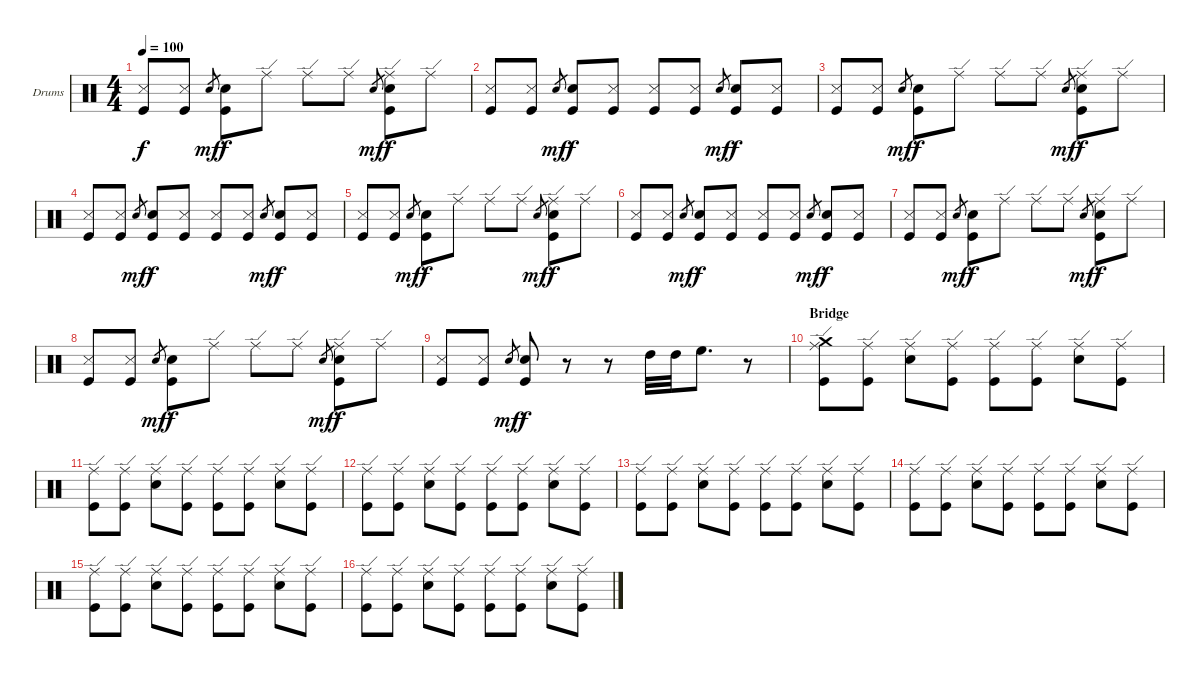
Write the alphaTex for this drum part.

\defaultSystemsLayout 4
\bracketExtendMode groupsimilarinstruments
\firstSystemTrackNameOrientation horizontal
\otherSystemsTrackNameOrientation horizontal
\track ("Drumkit" "Drums") {instrument percussion}
\staff {score}
\articulation defaults
\ts (4 4)
\tempo 100
\clef neutral
\scale
1.02648
\ks c
("Snare (side stick) 3" "Kick (hit)").8{dy f} ("Snare (side stick) 3" "Kick (hit)").8 "Snare (hit) 2".8{gr dy mf} ("Snare (hit) 2" "Kick (hit)").8{dy f} "Ride (edge)".8 "Ride (edge)".8 "Ride (edge)".8 "Snare (hit) 2".8{gr dy mf} ("Ride (edge)" "Snare (hit) 2" "Kick (hit)").8{dy f} "Ride (edge)".8 |
\scale
0.973518 ("Snare (side stick) 3" "Kick (hit)").8 ("Snare (side stick) 3" "Kick (hit)").8 "Snare (hit) 2".8{gr dy mf} ("Snare (hit) 2" "Kick (hit)").8{dy f} ("Snare (side stick) 3" "Kick (hit)").8 ("Snare (side stick) 3" "Kick (hit)").8 ("Snare (side stick) 3" "Kick (hit)").8 "Snare (hit) 2".8{gr dy mf} ("Snare (hit) 2" "Kick (hit)").8{dy f} ("Snare (side stick) 3" "Kick (hit)").8 |
\scale
1.02648 ("Snare (side stick) 3" "Kick (hit)").8 ("Snare (side stick) 3" "Kick (hit)").8 "Snare (hit) 2".8{gr dy mf} ("Snare (hit) 2" "Kick (hit)").8{dy f} "Ride (edge)".8 "Ride (edge)".8 "Ride (edge)".8 "Snare (hit) 2".8{gr dy mf} ("Ride (edge)" "Snare (hit) 2" "Kick (hit)").8{dy f} "Ride (edge)".8 |
\scale
0.973518 ("Snare (side stick) 3" "Kick (hit)").8 ("Snare (side stick) 3" "Kick (hit)").8 "Snare (hit) 2".8{gr dy mf} ("Snare (hit) 2" "Kick (hit)").8{dy f} ("Snare (side stick) 3" "Kick (hit)").8 ("Snare (side stick) 3" "Kick (hit)").8 ("Snare (side stick) 3" "Kick (hit)").8 "Snare (hit) 2".8{gr dy mf} ("Snare (hit) 2" "Kick (hit)").8{dy f} ("Snare (side stick) 3" "Kick (hit)").8 |
\scale
1.02648 ("Snare (side stick) 3" "Kick (hit)").8 ("Snare (side stick) 3" "Kick (hit)").8 "Snare (hit) 2".8{gr dy mf} ("Snare (hit) 2" "Kick (hit)").8{dy f} "Ride (edge)".8 "Ride (edge)".8 "Ride (edge)".8 "Snare (hit) 2".8{gr dy mf} ("Ride (edge)" "Snare (hit) 2" "Kick (hit)").8{dy f} "Ride (edge)".8 |
\scale
0.973518 ("Snare (side stick) 3" "Kick (hit)").8 ("Snare (side stick) 3" "Kick (hit)").8 "Snare (hit) 2".8{gr dy mf} ("Snare (hit) 2" "Kick (hit)").8{dy f} ("Snare (side stick) 3" "Kick (hit)").8 ("Snare (side stick) 3" "Kick (hit)").8 ("Snare (side stick) 3" "Kick (hit)").8 "Snare (hit) 2".8{gr dy mf} ("Snare (hit) 2" "Kick (hit)").8{dy f} ("Snare (side stick) 3" "Kick (hit)").8 |
\scale
1.02648 ("Snare (side stick) 3" "Kick (hit)").8 ("Snare (side stick) 3" "Kick (hit)").8 "Snare (hit) 2".8{gr dy mf} ("Snare (hit) 2" "Kick (hit)").8{dy f} "Ride (edge)".8 "Ride (edge)".8 "Ride (edge)".8 "Snare (hit) 2".8{gr dy mf} ("Ride (edge)" "Snare (hit) 2" "Kick (hit)").8{dy f} "Ride (edge)".8 |
\scale
0.973518 ("Snare (side stick) 3" "Kick (hit)").8 ("Snare (side stick) 3" "Kick (hit)").8 "Snare (hit) 2".8{gr dy mf} ("Snare (hit) 2" "Kick (hit)").8{dy f} "Ride (edge)".8 "Ride (edge)".8 "Ride (edge)".8 "Snare (hit) 2".8{gr dy mf} ("Ride (edge)" "Snare (hit) 2" "Kick (hit)").8{dy f} "Ride (edge)".8 |
\scale
1.02648 ("Snare (side stick) 3" "Kick (hit)").8 ("Snare (side stick) 3" "Kick (hit)").8 "Snare (hit) 2".8{gr dy mf} ("Snare (hit) 2" "Kick (hit)").8{dy f} r.8 r.8 "High Tom (hit)".32 "High Tom (hit)".32 "High Floor Tom (hit)".8{d} r.8 |
\section ("" "Bridge")
\scale
0.973518 ("Ride (edge)" "Crash medium (hit)" "Kick (hit)").8 ("Ride (edge)" "Kick (hit)").8 ("Ride (edge)" "Snare (hit) 2").8 ("Ride (edge)" "Kick (hit)").8 ("Ride (edge)" "Kick (hit)").8 ("Ride (edge)" "Kick (hit)").8 ("Ride (edge)" "Snare (hit) 2").8 ("Ride (edge)" "Kick (hit)").8 |
\scale
1.02648 ("Ride (edge)" "Kick (hit)").8 ("Ride (edge)" "Kick (hit)").8 ("Ride (edge)" "Snare (hit) 2").8 ("Ride (edge)" "Kick (hit)").8 ("Ride (edge)" "Kick (hit)").8 ("Ride (edge)" "Kick (hit)").8 ("Ride (edge)" "Snare (hit) 2").8 ("Ride (edge)" "Kick (hit)").8 |
\scale
0.973518 ("Ride (edge)" "Kick (hit)").8 ("Ride (edge)" "Kick (hit)").8 ("Ride (edge)" "Snare (hit) 2").8 ("Ride (edge)" "Kick (hit)").8 ("Ride (edge)" "Kick (hit)").8 ("Ride (edge)" "Kick (hit)").8 ("Ride (edge)" "Snare (hit) 2").8 ("Ride (edge)" "Kick (hit)").8 |
\scale
1.02648 ("Ride (edge)" "Kick (hit)").8 ("Ride (edge)" "Kick (hit)").8 ("Ride (edge)" "Snare (hit) 2").8 ("Ride (edge)" "Kick (hit)").8 ("Ride (edge)" "Kick (hit)").8 ("Ride (edge)" "Kick (hit)").8 ("Ride (edge)" "Snare (hit) 2").8 ("Ride (edge)" "Kick (hit)").8 |
\scale
0.973518 ("Ride (edge)" "Kick (hit)").8 ("Ride (edge)" "Kick (hit)").8 ("Ride (edge)" "Snare (hit) 2").8 ("Ride (edge)" "Kick (hit)").8 ("Ride (edge)" "Kick (hit)").8 ("Ride (edge)" "Kick (hit)").8 ("Ride (edge)" "Snare (hit) 2").8 ("Ride (edge)" "Kick (hit)").8 |
\scale
1.02648 ("Ride (edge)" "Kick (hit)").8 ("Ride (edge)" "Kick (hit)").8 ("Ride (edge)" "Snare (hit) 2").8 ("Ride (edge)" "Kick (hit)").8 ("Ride (edge)" "Kick (hit)").8 ("Ride (edge)" "Kick (hit)").8 ("Ride (edge)" "Snare (hit) 2").8 ("Ride (edge)" "Kick (hit)").8 |
\scale
0.973518 ("Ride (edge)" "Kick (hit)").8 ("Ride (edge)" "Kick (hit)").8 ("Ride (edge)" "Snare (hit) 2").8 ("Ride (edge)" "Kick (hit)").8 ("Ride (edge)" "Kick (hit)").8 ("Ride (edge)" "Kick (hit)").8 ("Ride (edge)" "Snare (hit) 2").8 ("Ride (edge)" "Kick (hit)").8
